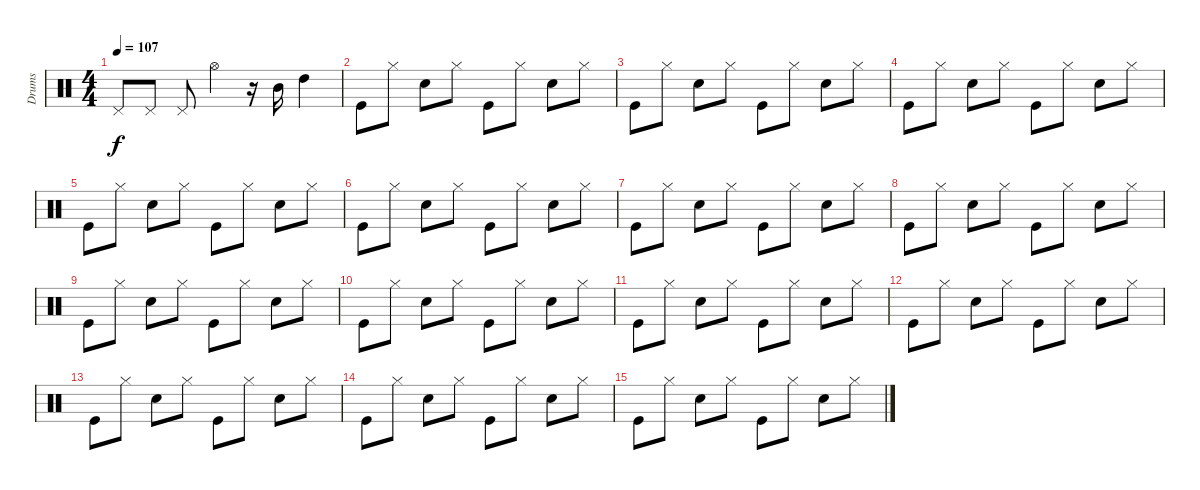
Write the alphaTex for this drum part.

\track ("Drums" "Drums") {instrument percussion}
\staff {score}
\articulation defaults
\ts (4 4)
\tempo 107
\clef neutral
\ks c "Pedal Hi-Hat (hit)".8{dy f} "Pedal Hi-Hat (hit)".8 "Pedal Hi-Hat (hit)".8 "Hi-Hat (open)".4
r.16 "Mid Tom (hit)".16 "High Tom (hit)".4 |
"Kick (hit)".8 "Hi-Hat (closed)".8 "Snare (hit) 2".8 "Hi-Hat (closed)".8 "Kick (hit)".8 "Hi-Hat (closed)".8 "Snare (hit) 2".8 "Hi-Hat (closed)".8 |
"Kick (hit)".8 "Hi-Hat (closed)".8 "Snare (hit) 2".8 "Hi-Hat (closed)".8 "Kick (hit)".8 "Hi-Hat (closed)".8 "Snare (hit) 2".8 "Hi-Hat (closed)".8 |
"Kick (hit)".8 "Hi-Hat (closed)".8 "Snare (hit) 2".8 "Hi-Hat (closed)".8 "Kick (hit)".8 "Hi-Hat (closed)".8 "Snare (hit) 2".8 "Hi-Hat (closed)".8 |
"Kick (hit)".8 "Hi-Hat (closed)".8 "Snare (hit) 2".8 "Hi-Hat (closed)".8 "Kick (hit)".8 "Hi-Hat (closed)".8 "Snare (hit) 2".8 "Hi-Hat (closed)".8 |
"Kick (hit)".8 "Hi-Hat (closed)".8 "Snare (hit) 2".8 "Hi-Hat (closed)".8 "Kick (hit)".8 "Hi-Hat (closed)".8 "Snare (hit) 2".8 "Hi-Hat (closed)".8 |
"Kick (hit)".8 "Hi-Hat (closed)".8 "Snare (hit) 2".8 "Hi-Hat (closed)".8 "Kick (hit)".8 "Hi-Hat (closed)".8 "Snare (hit) 2".8 "Hi-Hat (closed)".8 |
"Kick (hit)".8 "Hi-Hat (closed)".8 "Snare (hit) 2".8 "Hi-Hat (closed)".8 "Kick (hit)".8 "Hi-Hat (closed)".8 "Snare (hit) 2".8 "Hi-Hat (closed)".8 |
"Kick (hit)".8 "Hi-Hat (closed)".8 "Snare (hit) 2".8 "Hi-Hat (closed)".8 "Kick (hit)".8 "Hi-Hat (closed)".8 "Snare (hit) 2".8 "Hi-Hat (closed)".8 |
"Kick (hit)".8 "Hi-Hat (closed)".8 "Snare (hit) 2".8 "Hi-Hat (closed)".8 "Kick (hit)".8 "Hi-Hat (closed)".8 "Snare (hit) 2".8 "Hi-Hat (closed)".8 |
"Kick (hit)".8 "Hi-Hat (closed)".8 "Snare (hit) 2".8 "Hi-Hat (closed)".8 "Kick (hit)".8 "Hi-Hat (closed)".8 "Snare (hit) 2".8 "Hi-Hat (closed)".8 |
"Kick (hit)".8 "Hi-Hat (closed)".8 "Snare (hit) 2".8 "Hi-Hat (closed)".8 "Kick (hit)".8 "Hi-Hat (closed)".8 "Snare (hit) 2".8 "Hi-Hat (closed)".8 |
"Kick (hit)".8 "Hi-Hat (closed)".8 "Snare (hit) 2".8 "Hi-Hat (closed)".8 "Kick (hit)".8 "Hi-Hat (closed)".8 "Snare (hit) 2".8 "Hi-Hat (closed)".8 |
"Kick (hit)".8 "Hi-Hat (closed)".8 "Snare (hit) 2".8 "Hi-Hat (closed)".8 "Kick (hit)".8 "Hi-Hat (closed)".8 "Snare (hit) 2".8 "Hi-Hat (closed)".8 |
"Kick (hit)".8 "Hi-Hat (closed)".8 "Snare (hit) 2".8 "Hi-Hat (closed)".8 "Kick (hit)".8 "Hi-Hat (closed)".8 "Snare (hit) 2".8 "Hi-Hat (closed)".8
